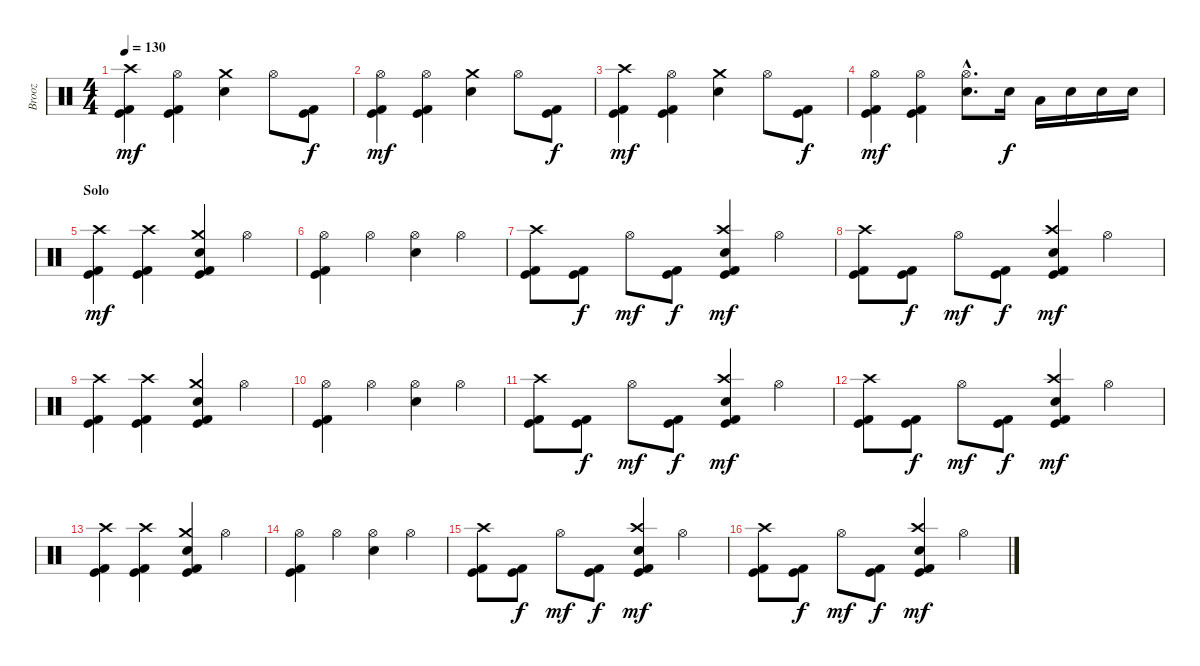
\track ("Brooz" "Brooz") {instrument percussion}
\staff {score}
\articulation defaults
\ts (4 4)
\tempo 130
\clef neutral
\ks c
("Kick (hit) 2" "Kick (hit)" "Crash high (hit)").4{dy mf} ("Hi-Hat (open)" "Kick (hit) 2" "Kick (hit)").4 ("Crash medium (hit)" "Snare (hit) 2").4 "Hi-Hat (open)".8 ("Kick (hit) 2" "Kick (hit)").8{dy f} |
("Kick (hit) 2" "Kick (hit)" "Hi-Hat (open)").4{dy mf} ("Hi-Hat (open)" "Kick (hit) 2" "Kick (hit)").4 ("Snare (hit) 2" "Crash medium (hit)").4 "Hi-Hat (open)".8 ("Kick (hit) 2" "Kick (hit)").8{dy f} |
("Kick (hit) 2" "Kick (hit)" "Crash high (hit)").4{dy mf} ("Hi-Hat (open)" "Kick (hit) 2" "Kick (hit)").4 ("Crash medium (hit)" "Snare (hit) 2").4 "Hi-Hat (open)".8 ("Kick (hit) 2" "Kick (hit)").8{dy f} |
("Kick (hit) 2" "Kick (hit)" "Hi-Hat (open)").4{dy mf} ("Hi-Hat (open)" "Kick (hit) 2" "Kick (hit)").4 ("Snare (hit) 2"{hac} "Hi-Hat (open)"{hac}).8{d} "Snare (hit) 2".16{dy f} "Low Tom (hit)".16 "Snare (hit) 2".16 "Snare (hit) 2".16 "Snare (hit) 2".16 |
\section ("" "Solo")
("Kick (hit) 2" "Kick (hit)" "Crash high (hit)").4{dy mf} ("Kick (hit) 2" "Kick (hit)" "Crash high (hit)").4 ("Kick (hit) 2" "Kick (hit)" "Crash medium (hit)" "Snare (hit) 2").4 "Hi-Hat (open)".4 |
("Hi-Hat (open)" "Kick (hit) 2" "Kick (hit)").4 "Hi-Hat (open)".4 ("Hi-Hat (open)" "Snare (hit) 2").4 "Hi-Hat (open)".4 |
("Kick (hit) 2" "Kick (hit)" "Crash high (hit)").8 ("Kick (hit) 2" "Kick (hit)").8{dy f} "Hi-Hat (open)".8{dy mf} ("Kick (hit) 2" "Kick (hit)").8{dy f} ("Kick (hit) 2" "Kick (hit)" "Crash high (hit)" "Snare (hit) 2").4{dy mf} "Hi-Hat (open)".4 |
("Kick (hit) 2" "Kick (hit)" "Crash high (hit)").8 ("Kick (hit) 2" "Kick (hit)").8{dy f} "Hi-Hat (open)".8{dy mf} ("Kick (hit) 2" "Kick (hit)").8{dy f} ("Kick (hit) 2" "Kick (hit)" "Crash high (hit)" "Snare (hit) 2").4{dy mf} "Hi-Hat (open)".4 |
("Kick (hit) 2" "Kick (hit)" "Crash high (hit)").4 ("Kick (hit) 2" "Kick (hit)" "Crash high (hit)").4 ("Kick (hit) 2" "Kick (hit)" "Crash medium (hit)" "Snare (hit) 2").4 "Hi-Hat (open)".4 |
("Hi-Hat (open)" "Kick (hit) 2" "Kick (hit)").4 "Hi-Hat (open)".4 ("Hi-Hat (open)" "Snare (hit) 2").4 "Hi-Hat (open)".4 |
("Kick (hit) 2" "Kick (hit)" "Crash high (hit)").8 ("Kick (hit) 2" "Kick (hit)").8{dy f} "Hi-Hat (open)".8{dy mf} ("Kick (hit) 2" "Kick (hit)").8{dy f} ("Kick (hit) 2" "Kick (hit)" "Crash high (hit)" "Snare (hit) 2").4{dy mf} "Hi-Hat (open)".4 |
("Kick (hit) 2" "Kick (hit)" "Crash high (hit)").8 ("Kick (hit) 2" "Kick (hit)").8{dy f} "Hi-Hat (open)".8{dy mf} ("Kick (hit) 2" "Kick (hit)").8{dy f} ("Kick (hit) 2" "Kick (hit)" "Crash high (hit)" "Snare (hit) 2").4{dy mf} "Hi-Hat (open)".4 |
("Kick (hit) 2" "Kick (hit)" "Crash high (hit)").4 ("Kick (hit) 2" "Kick (hit)" "Crash high (hit)").4 ("Kick (hit) 2" "Kick (hit)" "Crash medium (hit)" "Snare (hit) 2").4 "Hi-Hat (open)".4 |
("Hi-Hat (open)" "Kick (hit) 2" "Kick (hit)").4 "Hi-Hat (open)".4 ("Hi-Hat (open)" "Snare (hit) 2").4 "Hi-Hat (open)".4 |
("Kick (hit) 2" "Kick (hit)" "Crash high (hit)").8 ("Kick (hit) 2" "Kick (hit)").8{dy f} "Hi-Hat (open)".8{dy mf} ("Kick (hit) 2" "Kick (hit)").8{dy f} ("Kick (hit) 2" "Kick (hit)" "Crash high (hit)" "Snare (hit) 2").4{dy mf} "Hi-Hat (open)".4 |
("Kick (hit) 2" "Kick (hit)" "Crash high (hit)").8 ("Kick (hit) 2" "Kick (hit)").8{dy f} "Hi-Hat (open)".8{dy mf} ("Kick (hit) 2" "Kick (hit)").8{dy f} ("Kick (hit) 2" "Kick (hit)" "Crash high (hit)" "Snare (hit) 2").4{dy mf} "Hi-Hat (open)".4
